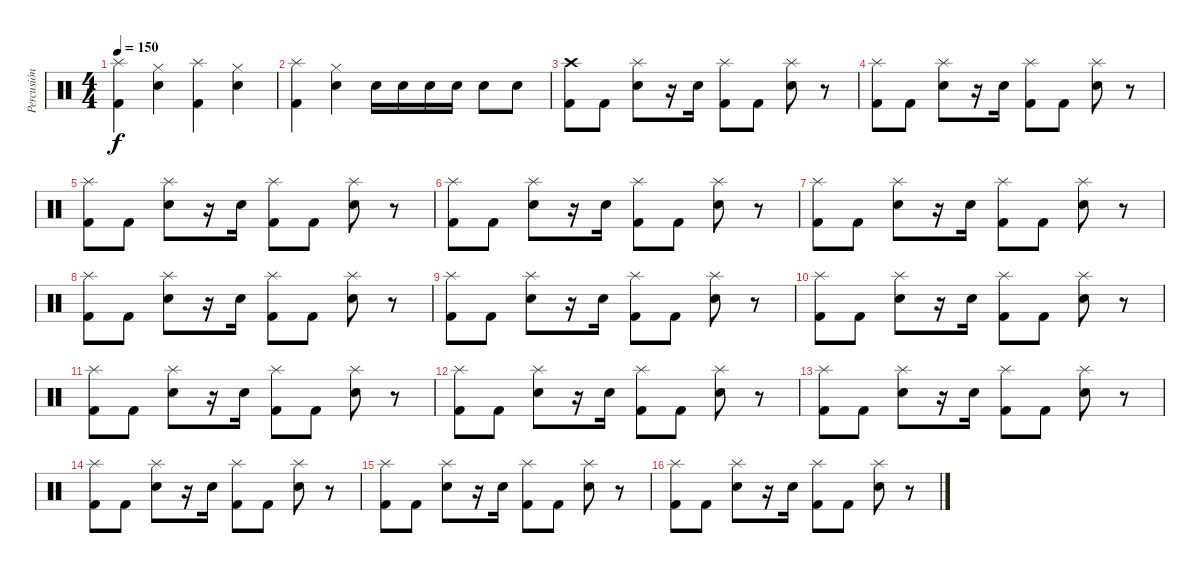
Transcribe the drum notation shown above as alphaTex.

\track ("Percusión" "Percusión") {instrument percussion}
\staff {score}
\articulation defaults
\ts (4 4)
\tempo 150
\clef neutral
\ks c
("Splash (hit)" "Kick (hit) 2").4{dy f} ("Hi-Hat (closed)" "Snare (hit) 2").4 ("Splash (hit)" "Kick (hit) 2").4 ("Hi-Hat (closed)" "Snare (hit) 2").4 |
("Splash (hit)" "Kick (hit) 2").4 ("Hi-Hat (closed)" "Snare (hit) 2").4 "Snare (hit) 2".16 "Snare (hit) 2".16 "Snare (hit) 2".16 "Snare (hit) 2".16 "Snare (hit) 2".8 "Snare (hit) 2".8 |
("Crash high (hit)" "Kick (hit) 2").8 "Kick (hit) 2".8 ("Splash (hit)" "Snare (hit) 2").8 r.16 "Snare (hit) 2".16 ("Splash (hit)" "Kick (hit) 2").8 "Kick (hit) 2".8 ("Splash (hit)" "Snare (hit) 2").8 r.8 |
("Splash (hit)" "Kick (hit) 2").8 "Kick (hit) 2".8 ("Splash (hit)" "Snare (hit) 2").8 r.16 "Snare (hit) 2".16 ("Splash (hit)" "Kick (hit) 2").8 "Kick (hit) 2".8 ("Splash (hit)" "Snare (hit) 2").8 r.8 |
("Splash (hit)" "Kick (hit) 2").8 "Kick (hit) 2".8 ("Splash (hit)" "Snare (hit) 2").8 r.16 "Snare (hit) 2".16 ("Splash (hit)" "Kick (hit) 2").8 "Kick (hit) 2".8 ("Splash (hit)" "Snare (hit) 2").8 r.8 |
("Splash (hit)" "Kick (hit) 2").8 "Kick (hit) 2".8 ("Splash (hit)" "Snare (hit) 2").8 r.16 "Snare (hit) 2".16 ("Splash (hit)" "Kick (hit) 2").8 "Kick (hit) 2".8 ("Splash (hit)" "Snare (hit) 2").8 r.8 |
("Splash (hit)" "Kick (hit) 2").8 "Kick (hit) 2".8 ("Splash (hit)" "Snare (hit) 2").8 r.16 "Snare (hit) 2".16 ("Splash (hit)" "Kick (hit) 2").8 "Kick (hit) 2".8 ("Splash (hit)" "Snare (hit) 2").8 r.8 |
("Splash (hit)" "Kick (hit) 2").8 "Kick (hit) 2".8 ("Splash (hit)" "Snare (hit) 2").8 r.16 "Snare (hit) 2".16 ("Splash (hit)" "Kick (hit) 2").8 "Kick (hit) 2".8 ("Splash (hit)" "Snare (hit) 2").8 r.8 |
("Splash (hit)" "Kick (hit) 2").8 "Kick (hit) 2".8 ("Splash (hit)" "Snare (hit) 2").8 r.16 "Snare (hit) 2".16 ("Splash (hit)" "Kick (hit) 2").8 "Kick (hit) 2".8 ("Splash (hit)" "Snare (hit) 2").8 r.8 |
("Splash (hit)" "Kick (hit) 2").8 "Kick (hit) 2".8 ("Splash (hit)" "Snare (hit) 2").8 r.16 "Snare (hit) 2".16 ("Splash (hit)" "Kick (hit) 2").8 "Kick (hit) 2".8 ("Splash (hit)" "Snare (hit) 2").8 r.8 |
("Splash (hit)" "Kick (hit) 2").8 "Kick (hit) 2".8 ("Splash (hit)" "Snare (hit) 2").8 r.16 "Snare (hit) 2".16 ("Splash (hit)" "Kick (hit) 2").8 "Kick (hit) 2".8 ("Splash (hit)" "Snare (hit) 2").8 r.8 |
("Splash (hit)" "Kick (hit) 2").8 "Kick (hit) 2".8 ("Splash (hit)" "Snare (hit) 2").8 r.16 "Snare (hit) 2".16 ("Splash (hit)" "Kick (hit) 2").8 "Kick (hit) 2".8 ("Splash (hit)" "Snare (hit) 2").8 r.8 |
("Splash (hit)" "Kick (hit) 2").8 "Kick (hit) 2".8 ("Splash (hit)" "Snare (hit) 2").8 r.16 "Snare (hit) 2".16 ("Splash (hit)" "Kick (hit) 2").8 "Kick (hit) 2".8 ("Splash (hit)" "Snare (hit) 2").8 r.8 |
("Splash (hit)" "Kick (hit) 2").8 "Kick (hit) 2".8 ("Splash (hit)" "Snare (hit) 2").8 r.16 "Snare (hit) 2".16 ("Splash (hit)" "Kick (hit) 2").8 "Kick (hit) 2".8 ("Splash (hit)" "Snare (hit) 2").8 r.8 |
("Splash (hit)" "Kick (hit) 2").8 "Kick (hit) 2".8 ("Splash (hit)" "Snare (hit) 2").8 r.16 "Snare (hit) 2".16 ("Splash (hit)" "Kick (hit) 2").8 "Kick (hit) 2".8 ("Splash (hit)" "Snare (hit) 2").8 r.8 |
("Splash (hit)" "Kick (hit) 2").8 "Kick (hit) 2".8 ("Splash (hit)" "Snare (hit) 2").8 r.16 "Snare (hit) 2".16 ("Splash (hit)" "Kick (hit) 2").8 "Kick (hit) 2".8 ("Splash (hit)" "Snare (hit) 2").8 r.8
